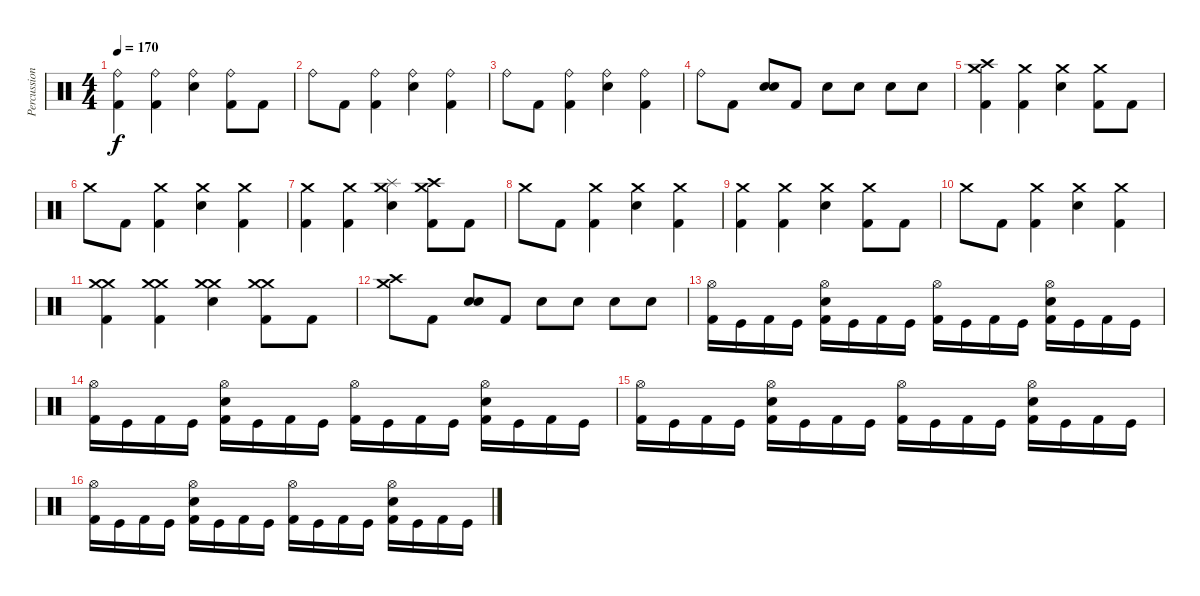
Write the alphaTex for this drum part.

\track ("Percussions" "Percussion") {instrument percussion}
\staff {score}
\articulation defaults
\ts (4 4)
\tempo 170
\clef neutral
\ks c
("Ride (bell)" "Kick (hit) 2").4{dy f} ("Ride (bell)" "Kick (hit) 2").4 ("Ride (bell)" "Electric Snare (hit)").4 ("Ride (bell)" "Kick (hit) 2").8 "Kick (hit) 2".8 |
"Ride (bell)".8 "Kick (hit) 2".8 ("Ride (bell)" "Kick (hit) 2").4 ("Ride (bell)" "Electric Snare (hit)").4 ("Ride (bell)" "Kick (hit) 2").4 |
"Ride (bell)".8 "Kick (hit) 2".8 ("Ride (bell)" "Kick (hit) 2").4 ("Ride (bell)" "Electric Snare (hit)").4 ("Ride (bell)" "Kick (hit) 2").4 |
"Ride (bell)".8 "Kick (hit) 2".8 ("Electric Snare (hit)" "Electric Snare (hit)").8{bd 480} "Kick (hit) 2".8 "Electric Snare (hit)".8 "Electric Snare (hit)".8 "Electric Snare (hit)".8 "Electric Snare (hit)".8 |
("Crash high (hit)" "Crash medium (hit)" "Kick (hit) 2").4 ("Crash medium (hit)" "Kick (hit) 2").4 ("Crash medium (hit)" "Electric Snare (hit)").4 ("Crash medium (hit)" "Kick (hit) 2").8 "Kick (hit) 2".8 |
"Crash medium (hit)".8 "Kick (hit) 2".8 ("Crash medium (hit)" "Kick (hit) 2").4 ("Crash medium (hit)" "Electric Snare (hit)").4 ("Crash medium (hit)" "Kick (hit) 2").4 |
("Crash medium (hit)" "Kick (hit) 2").4 ("Crash medium (hit)" "Kick (hit) 2").4 ("Splash (hit)" "Crash medium (hit)" "Electric Snare (hit)").4 ("Crash high (hit)" "Crash medium (hit)" "Kick (hit) 2").8 "Kick (hit) 2".8 |
"Crash medium (hit)".8 "Kick (hit) 2".8 ("Crash medium (hit)" "Kick (hit) 2").4 ("Crash medium (hit)" "Electric Snare (hit)").4 ("Crash medium (hit)" "Kick (hit) 2").4 |
("Crash medium (hit)" "Kick (hit) 2").4 ("Crash medium (hit)" "Kick (hit) 2").4 ("Crash medium (hit)" "Electric Snare (hit)").4 ("Crash medium (hit)" "Kick (hit) 2").8 "Kick (hit) 2".8 |
"Crash medium (hit)".8 "Kick (hit) 2".8 ("Crash medium (hit)" "Kick (hit) 2").4 ("Crash medium (hit)" "Electric Snare (hit)").4 ("Crash medium (hit)" "Kick (hit) 2").4 |
("Crash medium (hit)" "Crash medium (hit)" "Kick (hit) 2").4 ("Crash medium (hit)" "Crash medium (hit)" "Kick (hit) 2").4 ("Crash medium (hit)" "Crash medium (hit)" "Electric Snare (hit)").4 ("Crash medium (hit)" "Crash medium (hit)" "Kick (hit) 2").8 "Kick (hit) 2".8 |
("Crash high (hit)" "Crash medium (hit)").8 "Kick (hit) 2".8 ("Electric Snare (hit)" "Electric Snare (hit)").8{bd 480} "Kick (hit) 2".8 "Electric Snare (hit)".8 "Electric Snare (hit)".8 "Electric Snare (hit)".8 "Electric Snare (hit)".8 |
("Hi-Hat (open)" "Kick (hit) 2").16 "Kick (hit)".16 "Kick (hit) 2".16 "Kick (hit)".16 ("Hi-Hat (open)" "Electric Snare (hit)" "Kick (hit) 2").16 "Kick (hit)".16 "Kick (hit) 2".16 "Kick (hit)".16 ("Hi-Hat (open)" "Kick (hit) 2").16 "Kick (hit)".16 "Kick (hit) 2".16 "Kick (hit)".16 ("Hi-Hat (open)" "Electric Snare (hit)" "Kick (hit) 2").16 "Kick (hit)".16 "Kick (hit) 2".16 "Kick (hit)".16 |
("Hi-Hat (open)" "Kick (hit) 2").16 "Kick (hit)".16 "Kick (hit) 2".16 "Kick (hit)".16 ("Hi-Hat (open)" "Electric Snare (hit)" "Kick (hit) 2").16 "Kick (hit)".16 "Kick (hit) 2".16 "Kick (hit)".16 ("Hi-Hat (open)" "Kick (hit) 2").16 "Kick (hit)".16 "Kick (hit) 2".16 "Kick (hit)".16 ("Hi-Hat (open)" "Electric Snare (hit)" "Kick (hit) 2").16 "Kick (hit)".16 "Kick (hit) 2".16 "Kick (hit)".16 |
("Hi-Hat (open)" "Kick (hit) 2").16 "Kick (hit)".16 "Kick (hit) 2".16 "Kick (hit)".16 ("Hi-Hat (open)" "Electric Snare (hit)" "Kick (hit) 2").16 "Kick (hit)".16 "Kick (hit) 2".16 "Kick (hit)".16 ("Hi-Hat (open)" "Kick (hit) 2").16 "Kick (hit)".16 "Kick (hit) 2".16 "Kick (hit)".16 ("Hi-Hat (open)" "Electric Snare (hit)" "Kick (hit) 2").16 "Kick (hit)".16 "Kick (hit) 2".16 "Kick (hit)".16 |
("Hi-Hat (open)" "Kick (hit) 2").16 "Kick (hit)".16 "Kick (hit) 2".16 "Kick (hit)".16 ("Hi-Hat (open)" "Electric Snare (hit)" "Kick (hit) 2").16 "Kick (hit)".16 "Kick (hit) 2".16 "Kick (hit)".16 ("Hi-Hat (open)" "Kick (hit) 2").16 "Kick (hit)".16 "Kick (hit) 2".16 "Kick (hit)".16 ("Hi-Hat (open)" "Electric Snare (hit)" "Kick (hit) 2").16 "Kick (hit)".16 "Kick (hit) 2".16 "Kick (hit)".16
